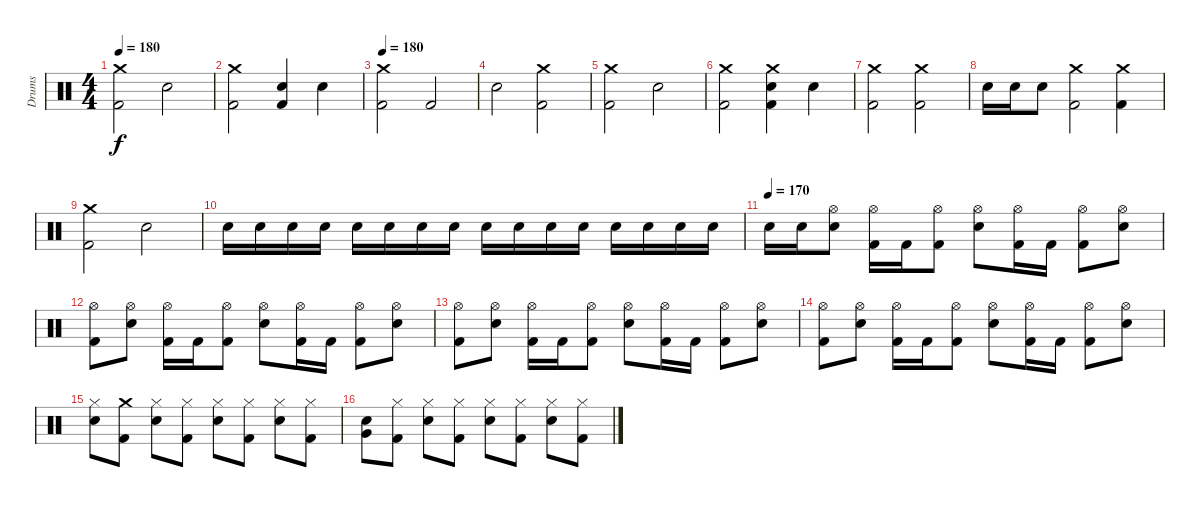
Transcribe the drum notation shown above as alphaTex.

\track ("Drums" "Drums") {instrument percussion}
\staff {score}
\articulation defaults
\ts (4 4)
\tempo 180
\clef neutral
\ks c
("Crash medium (hit)" "Kick (hit) 2").2{dy f} "Snare (hit) 2".2 |
("Crash medium (hit)" "Kick (hit) 2").2 ("Snare (hit) 2" "Kick (hit) 2").4 "Snare (hit) 2".4 |
\tempo 180
("Crash medium (hit)" "Kick (hit) 2").2 "Kick (hit) 2".2 |
"Snare (hit) 2".2 ("Crash medium (hit)" "Kick (hit) 2").2 |
("Crash medium (hit)" "Kick (hit) 2").2 "Snare (hit) 2".2 |
("Crash medium (hit)" "Kick (hit) 2").2 ("Crash medium (hit)" "Snare (hit) 2" "Kick (hit) 2").4 "Snare (hit) 2".4 |
("Crash medium (hit)" "Kick (hit) 2").2 ("Crash medium (hit)" "Kick (hit) 2").2 |
"Snare (hit) 2".16 "Snare (hit) 2".16 "Snare (hit) 2".8 ("Crash medium (hit)" "Kick (hit) 2").2 ("Crash medium (hit)" "Kick (hit) 2").4 |
("Crash medium (hit)" "Kick (hit) 2").2 "Snare (hit) 2".2 |
"Snare (hit) 2".16 "Snare (hit) 2".16 "Snare (hit) 2".16 "Snare (hit) 2".16 "Snare (hit) 2".16 "Snare (hit) 2".16 "Snare (hit) 2".16 "Snare (hit) 2".16 "Snare (hit) 2".16 "Snare (hit) 2".16 "Snare (hit) 2".16 "Snare (hit) 2".16 "Snare (hit) 2".16 "Snare (hit) 2".16 "Snare (hit) 2".16 "Snare (hit) 2".16 |
\tempo (170)
"Snare (hit) 2".16 "Snare (hit) 2".16 ("Hi-Hat (open)" "Snare (hit) 2").8 ("Hi-Hat (open)" "Kick (hit) 2").16 "Kick (hit) 2".16 ("Hi-Hat (open)" "Kick (hit) 2").8 ("Hi-Hat (open)" "Snare (hit) 2").8 ("Hi-Hat (open)" "Kick (hit) 2").16 "Kick (hit) 2".16 ("Hi-Hat (open)" "Kick (hit) 2").8 ("Hi-Hat (open)" "Snare (hit) 2").8 |
("Hi-Hat (open)" "Kick (hit) 2").8 ("Hi-Hat (open)" "Snare (hit) 2").8 ("Hi-Hat (open)" "Kick (hit) 2").16 "Kick (hit) 2".16 ("Hi-Hat (open)" "Kick (hit) 2").8 ("Hi-Hat (open)" "Snare (hit) 2").8 ("Hi-Hat (open)" "Kick (hit) 2").16 "Kick (hit) 2".16 ("Hi-Hat (open)" "Kick (hit) 2").8 ("Hi-Hat (open)" "Snare (hit) 2").8 |
("Hi-Hat (open)" "Kick (hit) 2").8 ("Hi-Hat (open)" "Snare (hit) 2").8 ("Hi-Hat (open)" "Kick (hit) 2").16 "Kick (hit) 2".16 ("Hi-Hat (open)" "Kick (hit) 2").8 ("Hi-Hat (open)" "Snare (hit) 2").8 ("Hi-Hat (open)" "Kick (hit) 2").16 "Kick (hit) 2".16 ("Hi-Hat (open)" "Kick (hit) 2").8 ("Hi-Hat (open)" "Snare (hit) 2").8 |
("Hi-Hat (open)" "Kick (hit) 2").8 ("Hi-Hat (open)" "Snare (hit) 2").8 ("Hi-Hat (open)" "Kick (hit) 2").16 "Kick (hit) 2".16 ("Hi-Hat (open)" "Kick (hit) 2").8 ("Hi-Hat (open)" "Snare (hit) 2").8 ("Hi-Hat (open)" "Kick (hit) 2").16 "Kick (hit) 2".16 ("Hi-Hat (open)" "Kick (hit) 2").8 ("Hi-Hat (open)" "Snare (hit) 2").8 |
("Hi-Hat (closed)" "Snare (hit) 2").8 ("Crash medium (hit)" "Kick (hit) 2").8 ("Hi-Hat (closed)" "Snare (hit) 2").8 ("Hi-Hat (closed)" "Kick (hit) 2").8 ("Hi-Hat (closed)" "Snare (hit) 2").8 ("Hi-Hat (closed)" "Kick (hit) 2").8 ("Hi-Hat (closed)" "Snare (hit) 2").8 ("Hi-Hat (closed)" "Kick (hit) 2").8 |
("Very Low Tom (hit)" "Snare (hit) 2").8 ("Hi-Hat (closed)" "Kick (hit) 2").8 ("Hi-Hat (closed)" "Snare (hit) 2").8 ("Hi-Hat (closed)" "Kick (hit) 2").8 ("Hi-Hat (closed)" "Snare (hit) 2").8 ("Hi-Hat (closed)" "Kick (hit) 2").8 ("Hi-Hat (closed)" "Snare (hit) 2").8 ("Hi-Hat (closed)" "Kick (hit) 2").8
